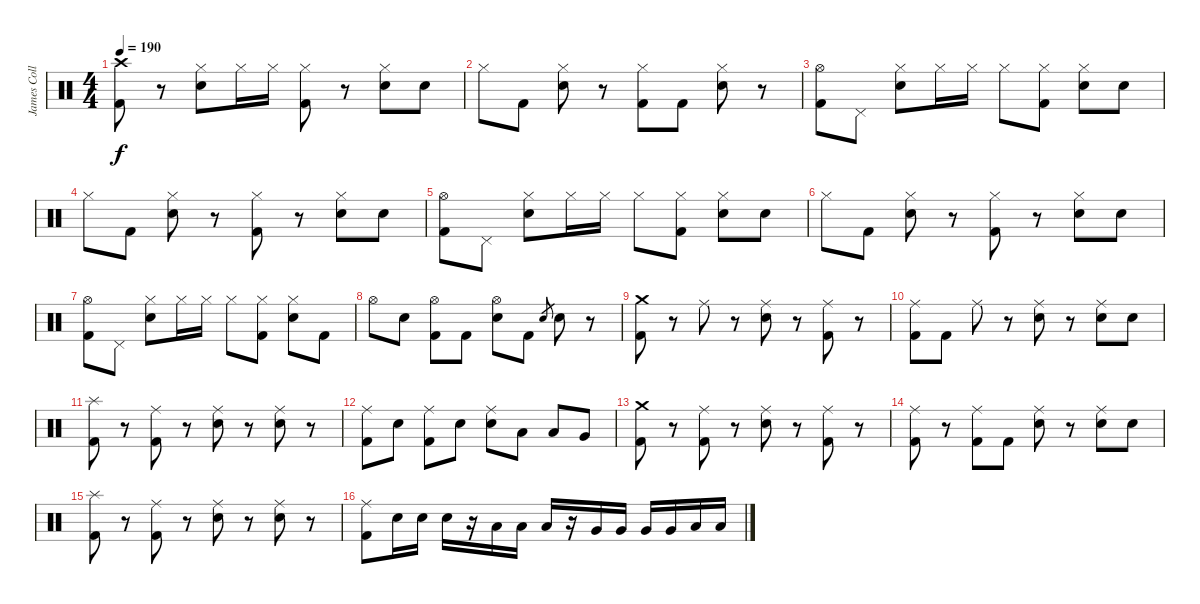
\track ("James Collins" "James Coll") {instrument percussion}
\staff {score}
\articulation defaults
\ts (4 4)
\tempo 190
\clef neutral
\ks c
("Crash high (hit)" "Kick (hit) 2").8{dy f} r.8 ("Hi-Hat (closed)" "Electric Snare (hit)").8 "Hi-Hat (closed)".16 "Hi-Hat (closed)".16 ("Hi-Hat (closed)" "Kick (hit) 2").8 r.8 ("Hi-Hat (closed)" "Electric Snare (hit)").8 "Electric Snare (hit)".8 |
"Hi-Hat (closed)".8 "Kick (hit) 2".8 ("Hi-Hat (closed)" "Electric Snare (hit)").8 r.8 ("Hi-Hat (closed)" "Kick (hit) 2").8 "Kick (hit) 2".8 ("Hi-Hat (closed)" "Electric Snare (hit)").8 r.8 |
("Hi-Hat (open)" "Kick (hit) 2").8 "Pedal Hi-Hat (hit)".8 ("Hi-Hat (closed)" "Electric Snare (hit)").8 "Hi-Hat (closed)".16 "Hi-Hat (closed)".16 "Hi-Hat (closed)".8 ("Hi-Hat (closed)" "Kick (hit) 2").8 ("Hi-Hat (closed)" "Electric Snare (hit)").8 "Electric Snare (hit)".8 |
"Hi-Hat (closed)".8 "Kick (hit) 2".8 ("Hi-Hat (closed)" "Electric Snare (hit)").8 r.8 ("Hi-Hat (closed)" "Kick (hit) 2").8 r.8 ("Hi-Hat (closed)" "Electric Snare (hit)").8 "Electric Snare (hit)".8 |
("Hi-Hat (open)" "Kick (hit) 2").8 "Pedal Hi-Hat (hit)".8 ("Hi-Hat (closed)" "Electric Snare (hit)").8 "Hi-Hat (closed)".16 "Hi-Hat (closed)".16 "Hi-Hat (closed)".8 ("Hi-Hat (closed)" "Kick (hit) 2").8 ("Hi-Hat (closed)" "Electric Snare (hit)").8 "Electric Snare (hit)".8 |
"Hi-Hat (closed)".8 "Kick (hit) 2".8 ("Hi-Hat (closed)" "Electric Snare (hit)").8 r.8 ("Hi-Hat (closed)" "Kick (hit) 2").8 r.8 ("Hi-Hat (closed)" "Electric Snare (hit)").8 "Electric Snare (hit)".8 |
("Hi-Hat (open)" "Kick (hit) 2").8 "Pedal Hi-Hat (hit)".8 ("Hi-Hat (closed)" "Electric Snare (hit)").8 "Hi-Hat (closed)".16 "Hi-Hat (closed)".16 "Hi-Hat (closed)".8 ("Hi-Hat (closed)" "Kick (hit) 2").8 ("Hi-Hat (closed)" "Electric Snare (hit)").8 "Kick (hit) 2".8 |
"Hi-Hat (open)".8 "Electric Snare (hit)".8 ("Hi-Hat (open)" "Kick (hit) 2").8 "Kick (hit) 2".8 ("Hi-Hat (open)" "Electric Snare (hit)").8 "Kick (hit) 2".8 "Electric Snare (hit)".8{gr} "Electric Snare (hit)".8 r.8 |
("Crash medium (hit)" "Kick (hit) 2").8 r.8 "Ride (middle)".8 r.8 ("Ride (middle)" "Electric Snare (hit)").8 r.8 ("Ride (middle)" "Kick (hit) 2").8 r.8 |
("Ride (middle)" "Kick (hit) 2").8 "Kick (hit) 2".8 "Ride (middle)".8 r.8 ("Ride (middle)" "Electric Snare (hit)").8 r.8 ("Ride (middle)" "Electric Snare (hit)").8 "Electric Snare (hit)".8 |
("Splash (hit)" "Kick (hit) 2").8 r.8 ("Ride (middle)" "Kick (hit) 2").8 r.8 ("Ride (middle)" "Electric Snare (hit)").8 r.8 ("Ride (middle)" "Electric Snare (hit)").8 r.8 |
("Ride (middle)" "Kick (hit) 2").8 "Electric Snare (hit)".8 ("Ride (middle)" "Kick (hit) 2").8 "Electric Snare (hit)".8 ("Ride (middle)" "Electric Snare (hit)").8 "Low Tom (hit)".8 "Low Tom (hit)".8 "Very Low Tom (hit)".8 |
("Crash medium (hit)" "Kick (hit) 2").8 r.8 ("Ride (middle)" "Kick (hit) 2").8 r.8 ("Ride (middle)" "Electric Snare (hit)").8 r.8 ("Ride (middle)" "Kick (hit) 2").8 r.8 |
("Ride (middle)" "Kick (hit) 2").8 r.8 ("Ride (middle)" "Kick (hit) 2").8 "Kick (hit) 2".8 ("Ride (middle)" "Electric Snare (hit)").8 r.8 ("Ride (middle)" "Electric Snare (hit)").8 "Electric Snare (hit)".8 |
("Splash (hit)" "Kick (hit) 2").8 r.8 ("Ride (middle)" "Kick (hit) 2").8 r.8 ("Ride (middle)" "Electric Snare (hit)").8 r.8 ("Ride (middle)" "Electric Snare (hit)").8 r.8 |
("Ride (middle)" "Kick (hit) 2").8 "Electric Snare (hit)".16 "Electric Snare (hit)".16 "Electric Snare (hit)".16 r.16 "Low Tom (hit)".16 "Low Tom (hit)".16 "Low Tom (hit)".16 r.16 "Very Low Tom (hit)".16 "Very Low Tom (hit)".16 "Very Low Tom (hit)".16 "Very Low Tom (hit)".16 "Low Floor Tom (hit)".16 "Low Floor Tom (hit)".16
